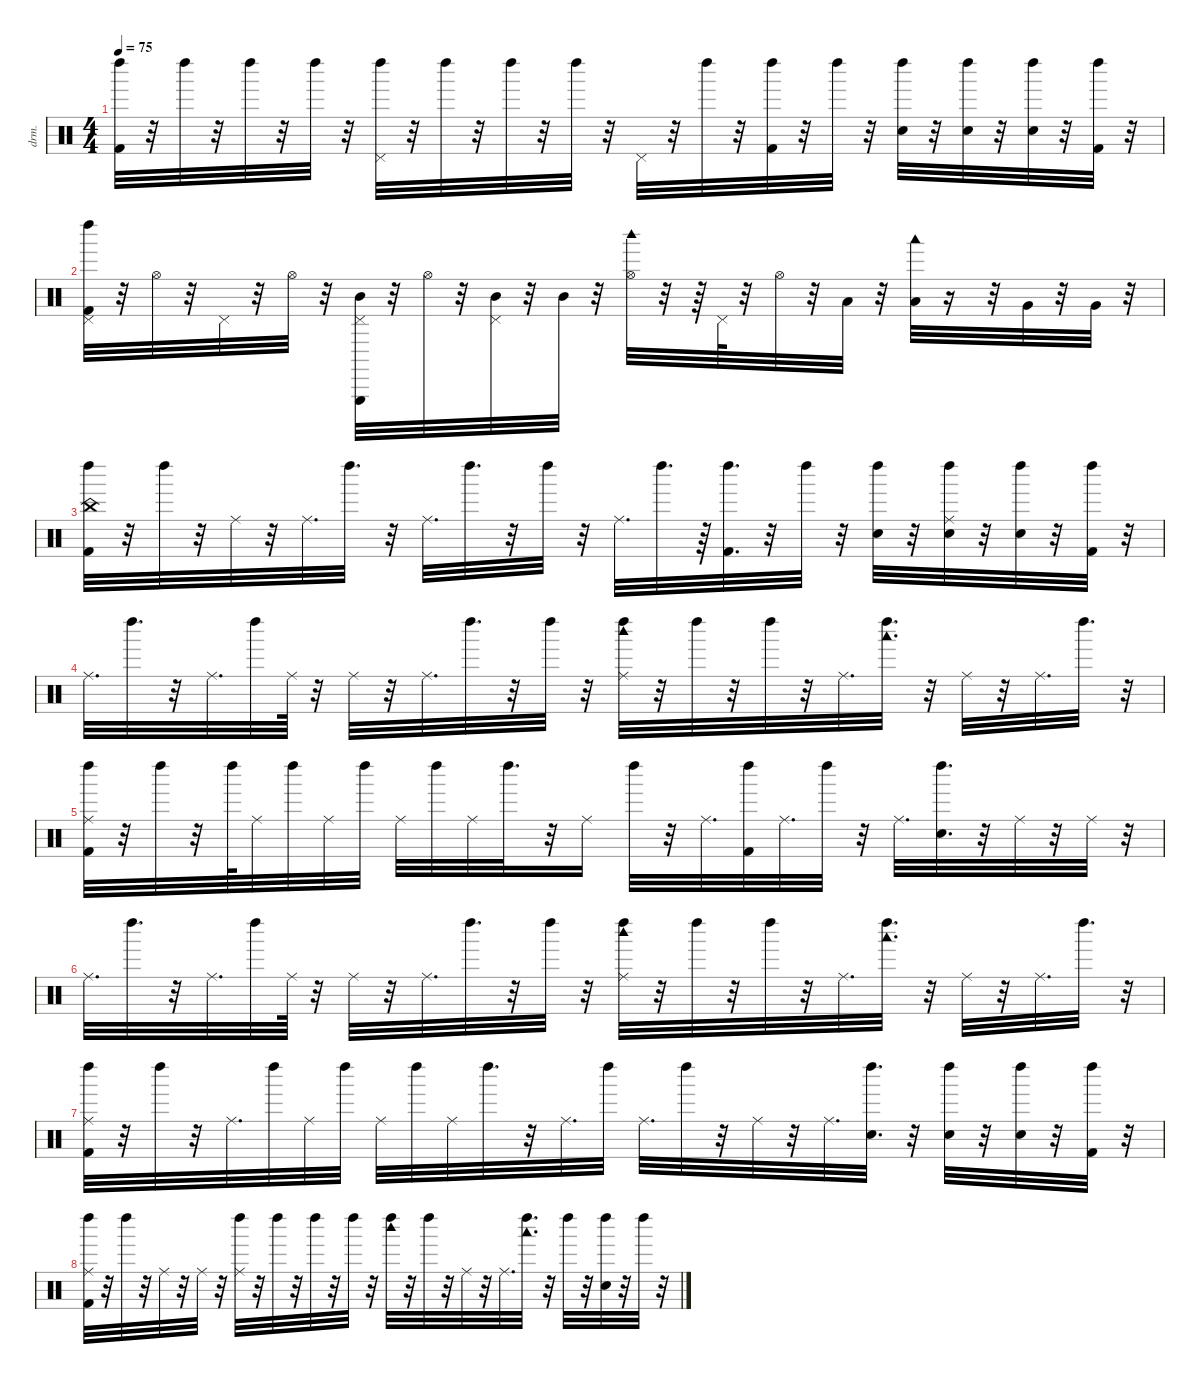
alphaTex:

\defaultSystemsLayout 4
\hideDynamics
\bracketExtendMode nobrackets
\otherSystemsTrackNameOrientation horizontal
\track ("Drums" "drm.") {instrument percussion}
\staff {score}
\articulation defaults
\ts (4 4)
\tempo 75
\clef neutral
\ks c
("Kick (hit) 2" "Left Maraca (hit)").32{dy f} r.32 "Left Maraca (hit)".32 r.32 "Left Maraca (hit)".32 r.32 "Left Maraca (hit)".32 r.32 ("Pedal Hi-Hat (hit)" "Left Maraca (hit)").32 r.32 "Left Maraca (hit)".32 r.32 "Left Maraca (hit)".32 r.32 "Left Maraca (hit)".32 r.32 "Pedal Hi-Hat (hit)".32 r.32 "Left Maraca (hit)".32 r.32 ("Kick (hit) 2" "Left Maraca (hit)").32 r.32 "Left Maraca (hit)".32 r.32 ("Snare (hit) 2" "Left Maraca (hit)").32 r.32 ("Snare (hit) 2" "Left Maraca (hit)").32 r.32 ("Snare (hit) 2" "Left Maraca (hit)").32 r.32 ("Kick (hit) 2" "Left Maraca (hit)").32 r.32 |
("Pedal Hi-Hat (hit)" "Kick (hit) 2" "Left Maraca (hit)").32 r.32 "Hi-Hat (open)".32 r.32 "Pedal Hi-Hat (hit)".32 r.32 "Hi-Hat (open)".32 r.32 ("Triangle (hit)" "Mid Tom (hit)" "Pedal Hi-Hat (hit)").32 r.32 "Hi-Hat (open)".32 r.32 ("Mid Tom (hit)" "Pedal Hi-Hat (hit)").32 r.32 "Mid Tom (hit)".32 r.32 ("Hi-Hat (open)" "Woodblock high (hit)").32 r.32 r.64 "Pedal Hi-Hat (hit)".64 r.32 "Hi-Hat (open)".32 r.32 "Low Tom (hit)".32 r.32 ("Low Tom (hit)" "Woodblock low (hit)").32 r.16 r.32 "Very Low Tom (hit)".32 r.32 "Very Low Tom (hit)".32 r.32 |
("China (hit)" "Kick (hit) 2" "Left Maraca (hit)").32 r.32 "Left Maraca (hit)".32 r.32 "Ride (middle)".32 r.32 "Ride (middle)".32{d} "Left Maraca (hit)".32{d} r.32 "Ride (middle)".32{d} "Left Maraca (hit)".32{d} r.32 "Left Maraca (hit)".32 r.32 "Ride (middle)".32{d} "Left Maraca (hit)".32{d} r.64 ("Kick (hit) 2" "Left Maraca (hit)").32{d} r.32 "Left Maraca (hit)".32 r.32 ("Snare (hit) 2" "Left Maraca (hit)").32 r.32 ("Ride (middle)" "Snare (hit) 2" "Left Maraca (hit)").32 r.32 ("Snare (hit) 2" "Left Maraca (hit)").32 r.32 ("Kick (hit) 2" "Left Maraca (hit)").32 r.32 |
"Ride (middle)".32{d} "Left Maraca (hit)".32{d} r.32 "Ride (middle)".32{d} "Left Maraca (hit)".32 "Ride (middle)".64 r.32 "Ride (middle)".32 r.32 "Ride (middle)".32{d} "Left Maraca (hit)".32{d} r.32 "Left Maraca (hit)".32 r.32 ("Ride (middle)" "Woodblock high (hit)" "Left Maraca (hit)").32 r.32 "Left Maraca (hit)".32 r.32 "Left Maraca (hit)".32 r.32 "Ride (middle)".32{d} ("Woodblock low (hit)" "Left Maraca (hit)").32{d} r.32 "Ride (middle)".32 r.32 "Ride (middle)".32{d} "Left Maraca (hit)".32{d} r.32 |
("Ride (middle)" "Kick (hit) 2" "Left Maraca (hit)").32 r.32 "Left Maraca (hit)".32 r.32 "Left Maraca (hit)".64 "Ride (middle)".32 "Left Maraca (hit)".32 "Ride (middle)".32 "Left Maraca (hit)".32 "Ride (middle)".32 "Left Maraca (hit)".32 "Ride (middle)".32 "Left Maraca (hit)".32{d} r.32 "Ride (middle)".16 "Left Maraca (hit)".32 r.32 "Ride (middle)".32{d} ("Kick (hit) 2" "Left Maraca (hit)").32 "Ride (middle)".32{d} "Left Maraca (hit)".32 r.32 "Ride (middle)".32{d} ("Snare (hit) 2" "Left Maraca (hit)").32{d} r.32 "Ride (middle)".32 r.32 "Ride (middle)".32 r.32 |
"Ride (middle)".32{d} "Left Maraca (hit)".32{d} r.32 "Ride (middle)".32{d} "Left Maraca (hit)".32 "Ride (middle)".64 r.32 "Ride (middle)".32 r.32 "Ride (middle)".32{d} "Left Maraca (hit)".32{d} r.32 "Left Maraca (hit)".32 r.32 ("Ride (middle)" "Woodblock high (hit)" "Left Maraca (hit)").32 r.32 "Left Maraca (hit)".32 r.32 "Left Maraca (hit)".32 r.32 "Ride (middle)".32{d} ("Woodblock low (hit)" "Left Maraca (hit)").32{d} r.32 "Ride (middle)".32 r.32 "Ride (middle)".32{d} "Left Maraca (hit)".32{d} r.32 |
("Ride (middle)" "Kick (hit) 2" "Left Maraca (hit)").32 r.32 "Left Maraca (hit)".32 r.32 "Ride (middle)".32{d} "Left Maraca (hit)".32 "Ride (middle)".32 "Left Maraca (hit)".32 "Ride (middle)".32 "Left Maraca (hit)".32 "Ride (middle)".32 "Left Maraca (hit)".32{d} r.32 "Ride (middle)".32{d} "Left Maraca (hit)".32 "Ride (middle)".32{d} "Left Maraca (hit)".32 r.32 "Ride (middle)".32 r.32 "Ride (middle)".32{d} ("Snare (hit) 2" "Left Maraca (hit)").32{d} r.32 ("Snare (hit) 2" "Left Maraca (hit)").32 r.32 ("Snare (hit) 2" "Left Maraca (hit)").32 r.32 ("Kick (hit) 2" "Left Maraca (hit)").32 r.32 |
("Ride (middle)" "Kick (hit) 2" "Left Maraca (hit)").32 r.32 "Left Maraca (hit)".32 r.32 "Ride (middle)".32 r.32 "Ride (middle)".32 r.32 ("Ride (middle)" "Left Maraca (hit)").32 r.32 "Left Maraca (hit)".32 r.32 "Left Maraca (hit)".32 r.32 "Left Maraca (hit)".32 r.32 ("Woodblock high (hit)" "Left Maraca (hit)").32 r.32 "Left Maraca (hit)".32 r.32 "Ride (middle)".32 r.32 "Ride (middle)".32{d} ("Woodblock low (hit)" "Left Maraca (hit)").32{d} r.32 "Left Maraca (hit)".32 r.32 ("Hand Clap (hit)" "Left Maraca (hit)").32 r.32 "Left Maraca (hit)".32 r.32
